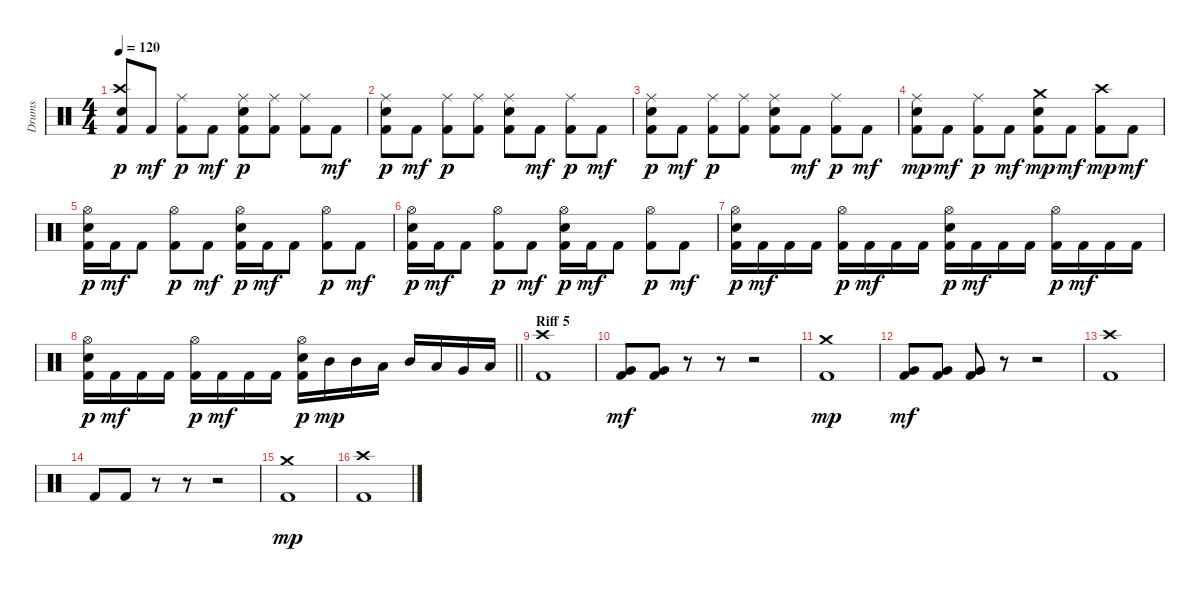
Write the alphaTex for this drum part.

\track ("Drums" "Drums") {instrument percussion}
\staff {score}
\articulation defaults
\ts (4 4)
\tempo 120
\clef neutral
\ks c
("Kick (hit) 2" "Crash high (hit)" "Snare (hit) 2").8{dy p} "Kick (hit) 2".8{dy mf} ("Kick (hit) 2" "Ride (middle)").8{dy p} "Kick (hit) 2".8{dy mf} ("Kick (hit) 2" "Ride (middle)" "Snare (hit) 2").8{dy p} ("Kick (hit) 2" "Ride (middle)").8 ("Kick (hit) 2" "Ride (middle)").8 "Kick (hit) 2".8{dy mf} |
("Kick (hit) 2" "Ride (middle)" "Snare (hit) 2").8{dy p} "Kick (hit) 2".8{dy mf} ("Kick (hit) 2" "Ride (middle)").8{dy p} ("Kick (hit) 2" "Ride (middle)").8 ("Kick (hit) 2" "Ride (middle)" "Snare (hit) 2").8 "Kick (hit) 2".8{dy mf} ("Kick (hit) 2" "Ride (middle)").8{dy p} "Kick (hit) 2".8{dy mf} |
("Kick (hit) 2" "Ride (middle)" "Snare (hit) 2").8{dy p} "Kick (hit) 2".8{dy mf} ("Kick (hit) 2" "Ride (middle)").8{dy p} ("Kick (hit) 2" "Ride (middle)").8 ("Kick (hit) 2" "Ride (middle)" "Snare (hit) 2").8 "Kick (hit) 2".8{dy mf} ("Kick (hit) 2" "Ride (middle)").8{dy p} "Kick (hit) 2".8{dy mf} |
("Kick (hit) 2" "Ride (middle)" "Snare (hit) 2").8{dy mp} "Kick (hit) 2".8{dy mf} ("Kick (hit) 2" "Ride (middle)").8{dy p} "Kick (hit) 2".8{dy mf} ("Kick (hit) 2" "Crash medium (hit)" "Snare (hit) 2").8{dy mp} "Kick (hit) 2".8{dy mf} ("Kick (hit) 2" "Crash high (hit)").8{dy mp} "Kick (hit) 2".8{dy mf} |
("Kick (hit) 2" "Hi-Hat (open)" "Snare (hit) 2").16{dy p} "Kick (hit) 2".16{dy mf} "Kick (hit) 2".8 ("Kick (hit) 2" "Hi-Hat (open)").8{dy p} "Kick (hit) 2".8{dy mf} ("Kick (hit) 2" "Hi-Hat (open)" "Snare (hit) 2").16{dy p} "Kick (hit) 2".16{dy mf} "Kick (hit) 2".8 ("Kick (hit) 2" "Hi-Hat (open)").8{dy p} "Kick (hit) 2".8{dy mf} |
("Kick (hit) 2" "Hi-Hat (open)" "Snare (hit) 2").16{dy p} "Kick (hit) 2".16{dy mf} "Kick (hit) 2".8 ("Kick (hit) 2" "Hi-Hat (open)").8{dy p} "Kick (hit) 2".8{dy mf} ("Kick (hit) 2" "Hi-Hat (open)" "Snare (hit) 2").16{dy p} "Kick (hit) 2".16{dy mf} "Kick (hit) 2".8 ("Kick (hit) 2" "Hi-Hat (open)").8{dy p} "Kick (hit) 2".8{dy mf} |
("Kick (hit) 2" "Hi-Hat (open)" "Snare (hit) 2").16{dy p} "Kick (hit) 2".16{dy mf} "Kick (hit) 2".16 "Kick (hit) 2".16 ("Kick (hit) 2" "Hi-Hat (open)").16{dy p} "Kick (hit) 2".16{dy mf} "Kick (hit) 2".16 "Kick (hit) 2".16 ("Kick (hit) 2" "Hi-Hat (open)" "Snare (hit) 2").16{dy p} "Kick (hit) 2".16{dy mf} "Kick (hit) 2".16 "Kick (hit) 2".16 ("Kick (hit) 2" "Hi-Hat (open)").16{dy p} "Kick (hit) 2".16{dy mf} "Kick (hit) 2".16 "Kick (hit) 2".16 |
\barLineRight lightlight
("Kick (hit) 2" "Hi-Hat (open)" "Snare (hit) 2").16{dy p} "Kick (hit) 2".16{dy mf} "Kick (hit) 2".16 "Kick (hit) 2".16 ("Kick (hit) 2" "Hi-Hat (open)").16{dy p} "Kick (hit) 2".16{dy mf} "Kick (hit) 2".16 "Kick (hit) 2".16 ("Kick (hit) 2" "Hi-Hat (open)" "Snare (hit) 2").16{dy p} "Mid Tom (hit)".16{dy mp} "Mid Tom (hit)".16 "Low Tom (hit)".16 "Mid Tom (hit)".16 "Low Tom (hit)".16 "Very Low Tom (hit)".16 "Low Floor Tom (hit)".16 |
\section ("" "Riff 5")
("Kick (hit) 2" "Crash high (hit)").1 |
("Kick (hit) 2" "Very Low Tom (hit)").8{dy mf} ("Kick (hit) 2" "Very Low Tom (hit)").8 r.8 r.8 r.2 |
("Kick (hit) 2" "Crash medium (hit)").1{dy mp} |
("Kick (hit) 2" "Very Low Tom (hit)").8{dy mf} ("Kick (hit) 2" "Very Low Tom (hit)").8 ("Kick (hit) 2" "Very Low Tom (hit)").8 r.8 r.2 |
("Kick (hit) 2" "Crash high (hit)").1 |
"Kick (hit) 2".8 "Kick (hit) 2".8 r.8 r.8 r.2 |
("Kick (hit) 2" "Crash medium (hit)").1{dy mp} |
("Kick (hit) 2" "Crash high (hit)").1
